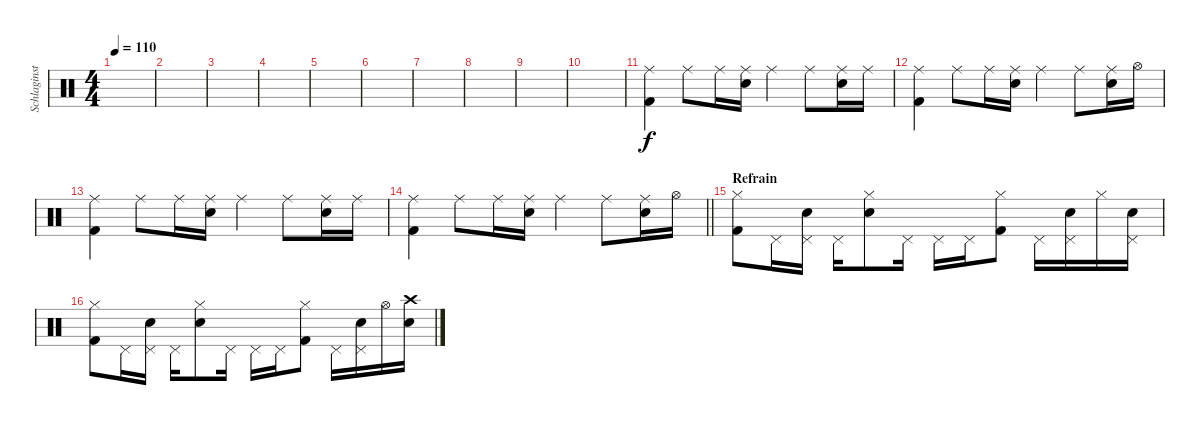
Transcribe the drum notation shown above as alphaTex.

\track ("Schlaginstrumente - Auswahl" "Schlaginst") {mute instrument percussion}
\staff {score}
\articulation defaults
\ts (4 4)
\tempo 110
\clef neutral
\ks c
|
|
|
|
|
|
|
|
|
|
("Ride (middle)" "Kick (hit) 2").4 "Ride (middle)".8 "Ride (middle)".16 ("Ride (middle)" "Snare (hit) 2").16 "Ride (middle)".4 "Ride (middle)".8 ("Ride (middle)" "Snare (hit) 2").16 "Ride (middle)".16 |
("Ride (middle)" "Kick (hit) 2").4 "Ride (middle)".8 "Ride (middle)".16 ("Ride (middle)" "Snare (hit) 2").16 "Ride (middle)".4 "Ride (middle)".8 ("Ride (middle)" "Snare (hit) 2").16 "Hi-Hat (open)".16 |
("Ride (middle)" "Kick (hit) 2").4 "Ride (middle)".8 "Ride (middle)".16 ("Ride (middle)" "Snare (hit) 2").16 "Ride (middle)".4 "Ride (middle)".8 ("Ride (middle)" "Snare (hit) 2").16 "Ride (middle)".16 |
\barLineRight lightlight
("Ride (middle)" "Kick (hit) 2").4 "Ride (middle)".8 "Ride (middle)".16 ("Ride (middle)" "Snare (hit) 2").16 "Ride (middle)".4 "Ride (middle)".8 ("Ride (middle)" "Snare (hit) 2").16 "Hi-Hat (open)".16 |
\section ("" "Refrain")
("Hi-Hat (closed)" "Kick (hit) 2").8 "Pedal Hi-Hat (hit)".16 ("Pedal Hi-Hat (hit)" "Snare (hit) 2").16 "Pedal Hi-Hat (hit)".16 ("Hi-Hat (closed)" "Snare (hit) 2").8 "Pedal Hi-Hat (hit)".16 "Pedal Hi-Hat (hit)".16 "Pedal Hi-Hat (hit)".16 ("Hi-Hat (closed)" "Kick (hit) 2").8 "Pedal Hi-Hat (hit)".16 ("Pedal Hi-Hat (hit)" "Snare (hit) 2").16 "Hi-Hat (closed)".16 ("Pedal Hi-Hat (hit)" "Snare (hit) 2").16 |
("Hi-Hat (closed)" "Kick (hit) 2").8 "Pedal Hi-Hat (hit)".16 ("Pedal Hi-Hat (hit)" "Snare (hit) 2").16 "Pedal Hi-Hat (hit)".16 ("Hi-Hat (closed)" "Snare (hit) 2").8 "Pedal Hi-Hat (hit)".16 "Pedal Hi-Hat (hit)".16 "Pedal Hi-Hat (hit)".16 ("Hi-Hat (closed)" "Kick (hit) 2").8 "Pedal Hi-Hat (hit)".16 ("Pedal Hi-Hat (hit)" "Snare (hit) 2").16 "Hi-Hat (open)".16 ("Crash high (hit)" "Snare (hit) 2").16
